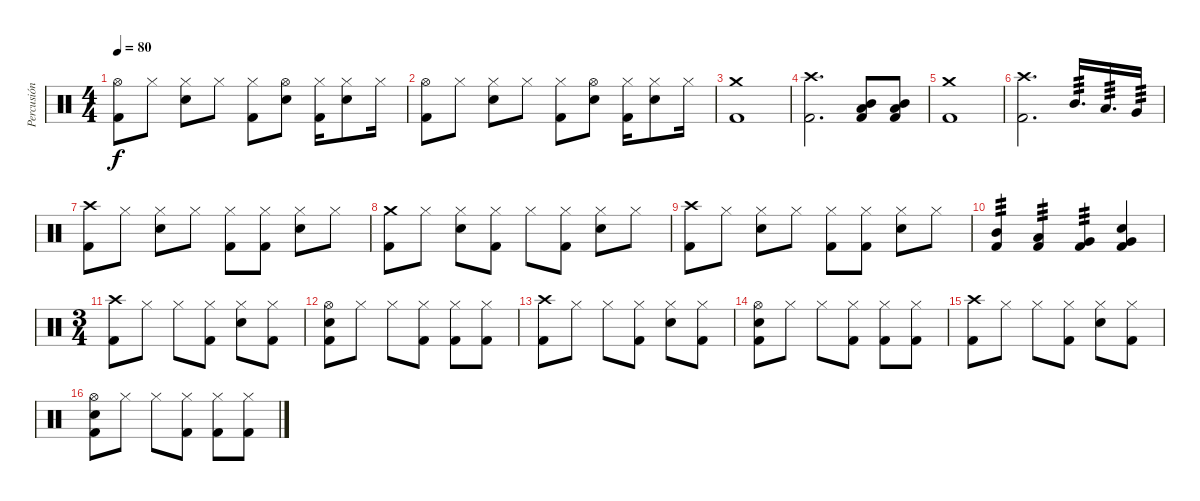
\track ("Percusión" "Percusión") {instrument percussion}
\staff {score}
\articulation defaults
\ts (4 4)
\tempo 80
\clef neutral
\ks c
("Hi-Hat (open)" "Kick (hit) 2").8{dy f} "Hi-Hat (closed)".8 ("Hi-Hat (closed)" "Electric Snare (hit)").8 "Hi-Hat (closed)".8 ("Hi-Hat (closed)" "Kick (hit) 2").8 ("Hi-Hat (open)" "Electric Snare (hit)").8 ("Hi-Hat (closed)" "Kick (hit) 2").16 ("Hi-Hat (closed)" "Electric Snare (hit)").8 "Hi-Hat (closed)".16 |
("Hi-Hat (open)" "Kick (hit) 2").8 "Hi-Hat (closed)".8 ("Hi-Hat (closed)" "Electric Snare (hit)").8 "Hi-Hat (closed)".8 ("Hi-Hat (closed)" "Kick (hit) 2").8 ("Hi-Hat (open)" "Electric Snare (hit)").8 ("Hi-Hat (closed)" "Kick (hit) 2").16 ("Hi-Hat (closed)" "Electric Snare (hit)").8 "Hi-Hat (closed)".16 |
("Crash medium (hit)" "Kick (hit) 2").1 |
("Crash high (hit)" "Kick (hit) 2").2{d} ("Mid Tom (hit)" "Low Tom (hit)" "Kick (hit) 2").8 ("Mid Tom (hit)" "Low Tom (hit)" "Kick (hit) 2").8 |
("Crash medium (hit)" "Kick (hit) 2").1 |
("Crash high (hit)" "Kick (hit) 2").2{d} "Mid Tom (hit)".16{d tp 3} "Low Tom (hit)".16{d tp 3} "Very Low Tom (hit)".16{tp 3} |
("Crash high (hit)" "Kick (hit) 2").8 "Hi-Hat (closed)".8 ("Hi-Hat (closed)" "Electric Snare (hit)").8 "Hi-Hat (closed)".8 ("Hi-Hat (closed)" "Kick (hit) 2").8 ("Hi-Hat (closed)" "Kick (hit) 2").8 ("Hi-Hat (closed)" "Electric Snare (hit)").8 "Hi-Hat (closed)".8 |
("Crash medium (hit)" "Kick (hit) 2").8 "Hi-Hat (closed)".8 ("Hi-Hat (closed)" "Electric Snare (hit)").8 ("Hi-Hat (closed)" "Kick (hit) 2").8 "Hi-Hat (closed)".8 ("Hi-Hat (closed)" "Kick (hit) 2").8 ("Hi-Hat (closed)" "Electric Snare (hit)").8 "Hi-Hat (closed)".8 |
("Crash high (hit)" "Kick (hit) 2").8 "Hi-Hat (closed)".8 ("Hi-Hat (closed)" "Electric Snare (hit)").8 "Hi-Hat (closed)".8 ("Hi-Hat (closed)" "Kick (hit) 2").8 ("Hi-Hat (closed)" "Kick (hit) 2").8 ("Hi-Hat (closed)" "Electric Snare (hit)").8 "Hi-Hat (closed)".8 |
("Mid Tom (hit)" "Kick (hit) 2").4{tp 3} ("Low Tom (hit)" "Kick (hit) 2").4{tp 3} ("Very Low Tom (hit)" "Kick (hit) 2").4{tp 3} ("Very Low Tom (hit)" "Electric Snare (hit)" "Kick (hit) 2").4 |
\ts (3 4)
("Crash high (hit)" "Kick (hit) 2").8 "Hi-Hat (closed)".8 "Hi-Hat (closed)".8 ("Hi-Hat (closed)" "Kick (hit) 2").8 ("Hi-Hat (closed)" "Electric Snare (hit)").8 ("Hi-Hat (closed)" "Kick (hit) 2").8 |
("Hi-Hat (open)" "Electric Snare (hit)" "Kick (hit) 2").8 "Hi-Hat (closed)".8 "Hi-Hat (closed)".8 ("Hi-Hat (closed)" "Kick (hit) 2").8 ("Hi-Hat (closed)" "Kick (hit) 2").8 ("Hi-Hat (closed)" "Kick (hit) 2").8 |
("Crash high (hit)" "Kick (hit) 2").8 "Hi-Hat (closed)".8 "Hi-Hat (closed)".8 ("Hi-Hat (closed)" "Kick (hit) 2").8 ("Hi-Hat (closed)" "Electric Snare (hit)").8 ("Hi-Hat (closed)" "Kick (hit) 2").8 |
("Hi-Hat (open)" "Electric Snare (hit)" "Kick (hit) 2").8 "Hi-Hat (closed)".8 "Hi-Hat (closed)".8 ("Hi-Hat (closed)" "Kick (hit) 2").8 ("Hi-Hat (closed)" "Kick (hit) 2").8 ("Hi-Hat (closed)" "Kick (hit) 2").8 |
("Crash high (hit)" "Kick (hit) 2").8 "Hi-Hat (closed)".8 "Hi-Hat (closed)".8 ("Hi-Hat (closed)" "Kick (hit) 2").8 ("Hi-Hat (closed)" "Electric Snare (hit)").8 ("Hi-Hat (closed)" "Kick (hit) 2").8 |
("Hi-Hat (open)" "Electric Snare (hit)" "Kick (hit) 2").8 "Hi-Hat (closed)".8 "Hi-Hat (closed)".8 ("Hi-Hat (closed)" "Kick (hit) 2").8 ("Hi-Hat (closed)" "Kick (hit) 2").8 ("Hi-Hat (closed)" "Kick (hit) 2").8
